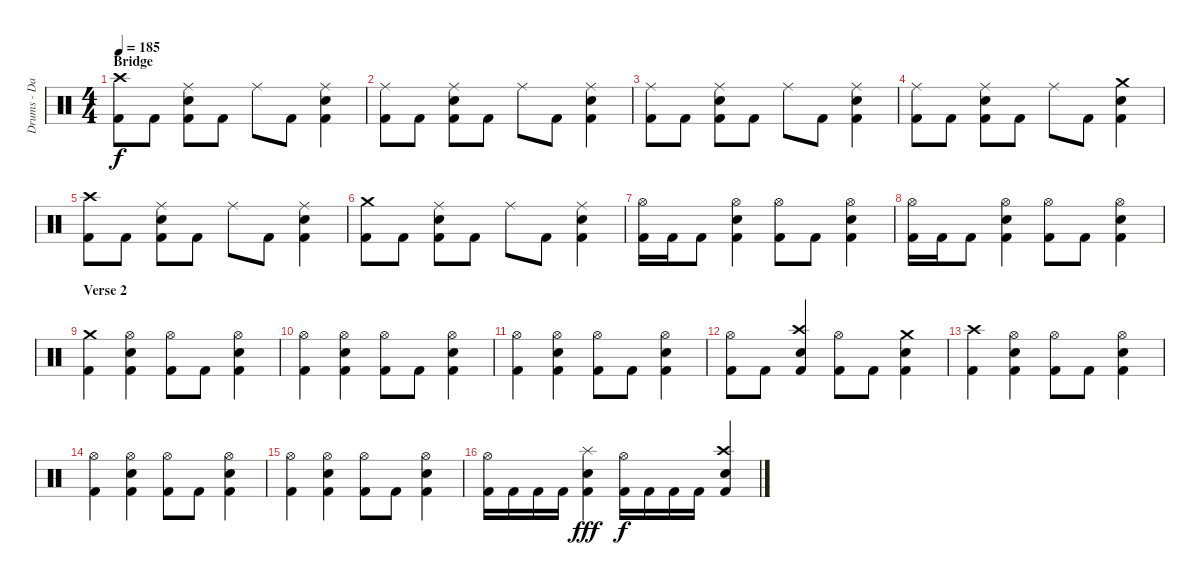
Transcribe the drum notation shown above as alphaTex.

\track ("Drums - Daniel Zimmermann" "Drums - Da") {instrument percussion}
\staff {score}
\articulation defaults
\ts (4 4)
\section ("" "Bridge")
\tempo 185
\clef neutral
\ks c
("Kick (hit) 2" "Crash high (hit)").8{dy f} "Kick (hit) 2".8 ("Kick (hit) 2" "Electric Snare (hit)" "Ride (middle)").8 "Kick (hit) 2".8 "Ride (middle)".8 "Kick (hit) 2".8 ("Kick (hit) 2" "Electric Snare (hit)" "Ride (middle)").4 |
("Kick (hit) 2" "Ride (middle)").8 "Kick (hit) 2".8 ("Kick (hit) 2" "Electric Snare (hit)" "Ride (middle)").8 "Kick (hit) 2".8 "Ride (middle)".8 "Kick (hit) 2".8 ("Kick (hit) 2" "Electric Snare (hit)" "Ride (middle)").4 |
("Kick (hit) 2" "Ride (middle)").8 "Kick (hit) 2".8 ("Kick (hit) 2" "Electric Snare (hit)" "Ride (middle)").8 "Kick (hit) 2".8 "Ride (middle)".8 "Kick (hit) 2".8 ("Kick (hit) 2" "Electric Snare (hit)" "Ride (middle)").4 |
("Kick (hit) 2" "Ride (middle)").8 "Kick (hit) 2".8 ("Kick (hit) 2" "Electric Snare (hit)" "Ride (middle)").8 "Kick (hit) 2".8 "Ride (middle)".8 "Kick (hit) 2".8 ("Kick (hit) 2" "Electric Snare (hit)" "Crash medium (hit)").4 |
("Kick (hit) 2" "Crash high (hit)").8 "Kick (hit) 2".8 ("Kick (hit) 2" "Electric Snare (hit)" "Ride (middle)").8 "Kick (hit) 2".8 "Ride (middle)".8 "Kick (hit) 2".8 ("Kick (hit) 2" "Electric Snare (hit)" "Ride (middle)").4 |
("Kick (hit) 2" "Crash medium (hit)").8 "Kick (hit) 2".8 ("Kick (hit) 2" "Electric Snare (hit)" "Ride (middle)").8 "Kick (hit) 2".8 "Ride (middle)".8 "Kick (hit) 2".8 ("Kick (hit) 2" "Electric Snare (hit)" "Ride (middle)").4 |
("Kick (hit) 2" "Hi-Hat (open)").16 "Kick (hit) 2".16 "Kick (hit) 2".8 ("Kick (hit) 2" "Electric Snare (hit)" "Hi-Hat (open)").4 ("Kick (hit) 2" "Hi-Hat (open)").8 "Kick (hit) 2".8 ("Kick (hit) 2" "Electric Snare (hit)" "Hi-Hat (open)").4 |
("Kick (hit) 2" "Hi-Hat (open)").16 "Kick (hit) 2".16 "Kick (hit) 2".8 ("Kick (hit) 2" "Electric Snare (hit)" "Hi-Hat (open)").4 ("Kick (hit) 2" "Hi-Hat (open)").8 "Kick (hit) 2".8 ("Kick (hit) 2" "Electric Snare (hit)" "Hi-Hat (open)").4 |
\section ("" "Verse 2")
("Kick (hit) 2" "Crash medium (hit)").4 ("Kick (hit) 2" "Electric Snare (hit)" "Hi-Hat (open)").4 ("Kick (hit) 2" "Hi-Hat (open)").8 "Kick (hit) 2".8 ("Kick (hit) 2" "Electric Snare (hit)" "Hi-Hat (open)").4 |
("Kick (hit) 2" "Hi-Hat (open)").4 ("Kick (hit) 2" "Electric Snare (hit)" "Hi-Hat (open)").4 ("Kick (hit) 2" "Hi-Hat (open)").8 "Kick (hit) 2".8 ("Kick (hit) 2" "Electric Snare (hit)" "Hi-Hat (open)").4 |
("Kick (hit) 2" "Hi-Hat (open)").4 ("Kick (hit) 2" "Electric Snare (hit)" "Hi-Hat (open)").4 ("Kick (hit) 2" "Hi-Hat (open)").8 "Kick (hit) 2".8 ("Kick (hit) 2" "Electric Snare (hit)" "Hi-Hat (open)").4 |
("Kick (hit) 2" "Hi-Hat (open)").8 "Kick (hit) 2".8 ("Kick (hit) 2" "Electric Snare (hit)" "Crash high (hit)").4 ("Kick (hit) 2" "Hi-Hat (open)").8 "Kick (hit) 2".8 ("Kick (hit) 2" "Electric Snare (hit)" "Crash medium (hit)").4 |
("Kick (hit) 2" "Crash high (hit)").4 ("Kick (hit) 2" "Electric Snare (hit)" "Hi-Hat (open)").4 ("Kick (hit) 2" "Hi-Hat (open)").8 "Kick (hit) 2".8 ("Kick (hit) 2" "Electric Snare (hit)" "Hi-Hat (open)").4 |
("Kick (hit) 2" "Hi-Hat (open)").4 ("Kick (hit) 2" "Electric Snare (hit)" "Hi-Hat (open)").4 ("Kick (hit) 2" "Hi-Hat (open)").8 "Kick (hit) 2".8 ("Kick (hit) 2" "Electric Snare (hit)" "Hi-Hat (open)").4 |
("Kick (hit) 2" "Hi-Hat (open)").4 ("Kick (hit) 2" "Electric Snare (hit)" "Hi-Hat (open)").4 ("Kick (hit) 2" "Hi-Hat (open)").8 "Kick (hit) 2".8 ("Kick (hit) 2" "Electric Snare (hit)" "Hi-Hat (open)").4 |
("Kick (hit) 2" "Hi-Hat (open)").16 "Kick (hit) 2".16 "Kick (hit) 2".16 "Kick (hit) 2".16 ("Kick (hit) 2" "Electric Snare (hit)" "Splash (hit)").4{dy fff} ("Kick (hit) 2" "Hi-Hat (open)").16{dy f} "Kick (hit) 2".16 "Kick (hit) 2".16 "Kick (hit) 2".16 ("Kick (hit) 2" "Electric Snare (hit)" "Crash high (hit)").4
